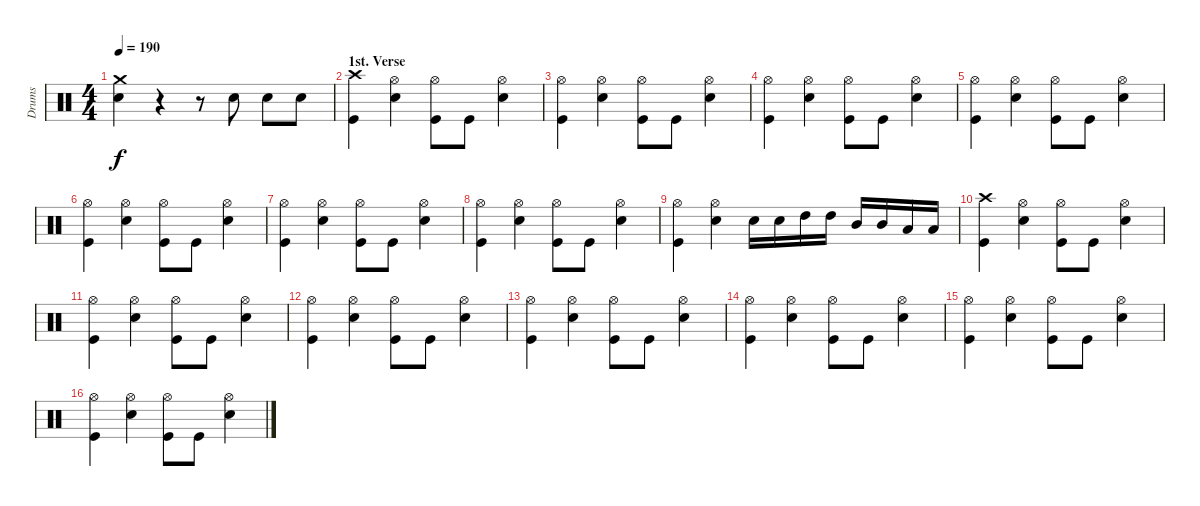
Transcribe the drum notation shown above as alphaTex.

\track ("Drums" "Drums") {instrument percussion}
\staff {score}
\articulation defaults
\ts (4 4)
\tempo 190
\clef neutral
\ks c
("Crash medium (hit)" "Electric Snare (hit)").4{dy f} r.4 r.8 "Electric Snare (hit)".8 "Electric Snare (hit)".8 "Electric Snare (hit)".8 |
\section ("" "1st. Verse")
("Crash high (hit)" "Kick (hit)").4 ("Hi-Hat (open)" "Electric Snare (hit)").4 ("Hi-Hat (open)" "Kick (hit)").8 "Kick (hit)".8 ("Hi-Hat (open)" "Electric Snare (hit)").4 |
("Hi-Hat (open)" "Kick (hit)").4 ("Hi-Hat (open)" "Electric Snare (hit)").4 ("Hi-Hat (open)" "Kick (hit)").8 "Kick (hit)".8 ("Hi-Hat (open)" "Electric Snare (hit)").4 |
("Hi-Hat (open)" "Kick (hit)").4 ("Hi-Hat (open)" "Electric Snare (hit)").4 ("Hi-Hat (open)" "Kick (hit)").8 "Kick (hit)".8 ("Hi-Hat (open)" "Electric Snare (hit)").4 |
("Hi-Hat (open)" "Kick (hit)").4 ("Hi-Hat (open)" "Electric Snare (hit)").4 ("Hi-Hat (open)" "Kick (hit)").8 "Kick (hit)".8 ("Hi-Hat (open)" "Electric Snare (hit)").4 |
("Hi-Hat (open)" "Kick (hit)").4 ("Hi-Hat (open)" "Electric Snare (hit)").4 ("Hi-Hat (open)" "Kick (hit)").8 "Kick (hit)".8 ("Hi-Hat (open)" "Electric Snare (hit)").4 |
("Hi-Hat (open)" "Kick (hit)").4 ("Hi-Hat (open)" "Electric Snare (hit)").4 ("Hi-Hat (open)" "Kick (hit)").8 "Kick (hit)".8 ("Hi-Hat (open)" "Electric Snare (hit)").4 |
("Hi-Hat (open)" "Kick (hit)").4 ("Hi-Hat (open)" "Electric Snare (hit)").4 ("Hi-Hat (open)" "Kick (hit)").8 "Kick (hit)".8 ("Hi-Hat (open)" "Electric Snare (hit)").4 |
("Hi-Hat (open)" "Kick (hit)").4 ("Hi-Hat (open)" "Electric Snare (hit)").4 "Electric Snare (hit)".16 "Electric Snare (hit)".16 "High Tom (hit)".16 "High Tom (hit)".16 "Mid Tom (hit)".16 "Mid Tom (hit)".16 "Low Tom (hit)".16 "Low Tom (hit)".16 |
("Crash high (hit)" "Kick (hit)").4 ("Hi-Hat (open)" "Electric Snare (hit)").4 ("Hi-Hat (open)" "Kick (hit)").8 "Kick (hit)".8 ("Hi-Hat (open)" "Electric Snare (hit)").4 |
("Hi-Hat (open)" "Kick (hit)").4 ("Hi-Hat (open)" "Electric Snare (hit)").4 ("Hi-Hat (open)" "Kick (hit)").8 "Kick (hit)".8 ("Hi-Hat (open)" "Electric Snare (hit)").4 |
("Hi-Hat (open)" "Kick (hit)").4 ("Hi-Hat (open)" "Electric Snare (hit)").4 ("Hi-Hat (open)" "Kick (hit)").8 "Kick (hit)".8 ("Hi-Hat (open)" "Electric Snare (hit)").4 |
("Hi-Hat (open)" "Kick (hit)").4 ("Hi-Hat (open)" "Electric Snare (hit)").4 ("Hi-Hat (open)" "Kick (hit)").8 "Kick (hit)".8 ("Hi-Hat (open)" "Electric Snare (hit)").4 |
("Hi-Hat (open)" "Kick (hit)").4 ("Hi-Hat (open)" "Electric Snare (hit)").4 ("Hi-Hat (open)" "Kick (hit)").8 "Kick (hit)".8 ("Hi-Hat (open)" "Electric Snare (hit)").4 |
("Hi-Hat (open)" "Kick (hit)").4 ("Hi-Hat (open)" "Electric Snare (hit)").4 ("Hi-Hat (open)" "Kick (hit)").8 "Kick (hit)".8 ("Hi-Hat (open)" "Electric Snare (hit)").4 |
("Hi-Hat (open)" "Kick (hit)").4 ("Hi-Hat (open)" "Electric Snare (hit)").4 ("Hi-Hat (open)" "Kick (hit)").8 "Kick (hit)".8 ("Hi-Hat (open)" "Electric Snare (hit)").4
